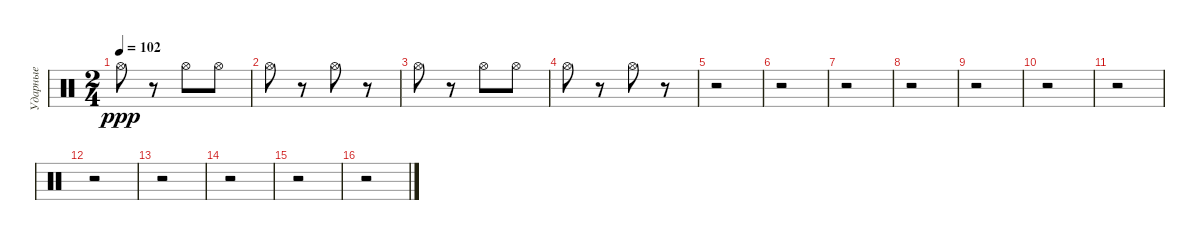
\track ("Ударные" "Ударные") {instrument percussion}
\staff {score}
\articulation defaults
\ts (2 4)
\tempo 102
\clef neutral
\ks c "Hi-Hat (open)".8{dy ppp}
r.8 "Hi-Hat (open)".8 "Hi-Hat (open)".8 |
"Hi-Hat (open)".8 r.8 "Hi-Hat (open)".8 r.8 |
"Hi-Hat (open)".8 r.8 "Hi-Hat (open)".8 "Hi-Hat (open)".8 |
"Hi-Hat (open)".8 r.8 "Hi-Hat (open)".8 r.8 |
r.2 |
r.2 |
r.2 |
r.2 |
r.2 |
r.2 |
r.2 |
r.2 |
r.2 |
r.2 |
r.2 |
r.2
